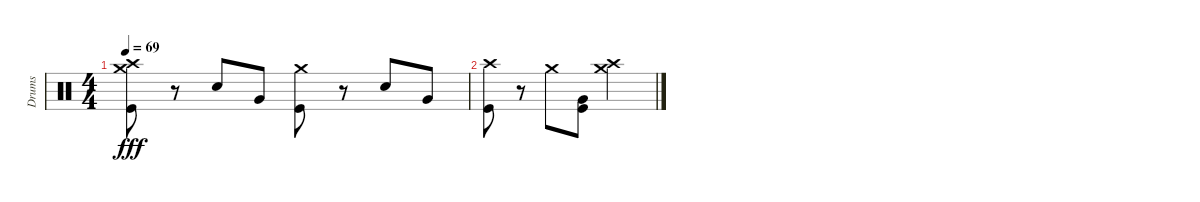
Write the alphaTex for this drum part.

\track ("Drums" "Drums") {instrument percussion}
\staff {score}
\articulation defaults
\ts (4 4)
\tempo 69
\clef neutral
\ks c
("Crash medium (hit)" "Kick (hit)" "Crash high (hit)").8{dy fff} r.8 "Electric Snare (hit)".8 "Very Low Tom (hit)".8 ("Kick (hit)" "Crash medium (hit)").8 r.8 "Electric Snare (hit)".8 "Very Low Tom (hit)".8 |
("Kick (hit)" "Crash high (hit)").8 r.8 "Crash medium (hit)".8 ("Kick (hit)" "Very Low Tom (hit)").8 ("Crash high (hit)" "Crash medium (hit)").2
